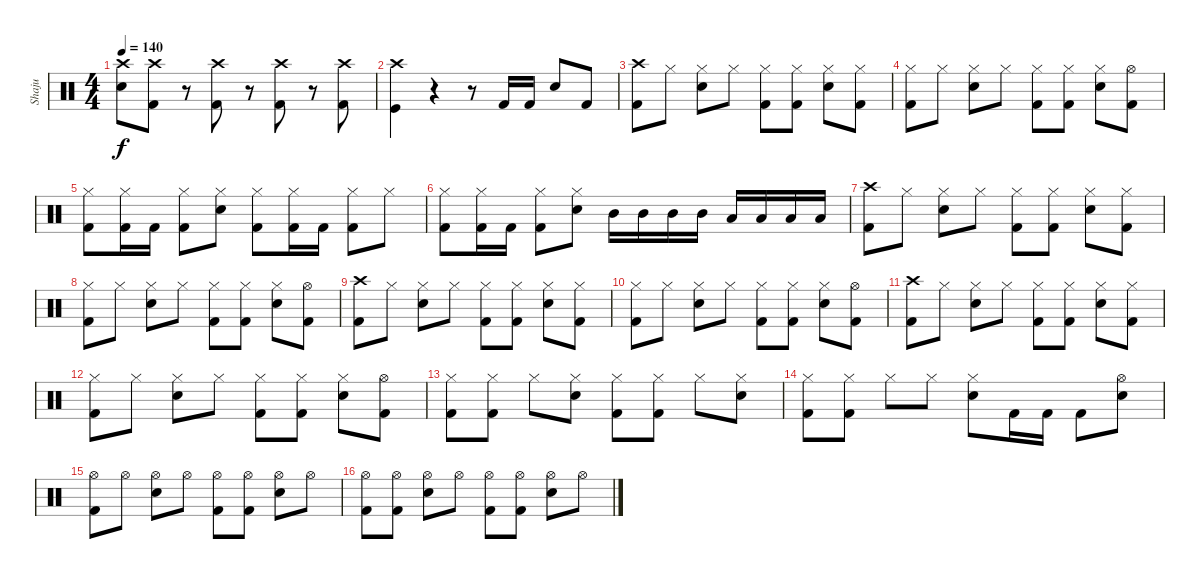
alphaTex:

\track ("Shaju" "Shaju") {instrument percussion}
\staff {score}
\articulation defaults
\ts (4 4)
\tempo 140
\clef neutral
\ks c
("Crash high (hit)" "Electric Snare (hit)").8{dy f} ("Crash high (hit)" "Kick (hit) 2").8 r.8 ("Kick (hit) 2" "Crash high (hit)").8 r.8 ("Kick (hit) 2" "Crash high (hit)").8 r.8 ("Crash high (hit)" "Kick (hit) 2").8 |
("Kick (hit)" "Crash high (hit)").4 r.4 r.8 "Kick (hit) 2".16 "Kick (hit) 2".16 "Electric Snare (hit)".8 "Kick (hit) 2".8 |
("Crash high (hit)" "Kick (hit) 2").8 "Hi-Hat (closed)".8 ("Hi-Hat (closed)" "Electric Snare (hit)").8 "Hi-Hat (closed)".8 ("Hi-Hat (closed)" "Kick (hit) 2").8 ("Hi-Hat (closed)" "Kick (hit) 2").8 ("Hi-Hat (closed)" "Electric Snare (hit)").8 ("Hi-Hat (closed)" "Kick (hit) 2").8 |
("Hi-Hat (closed)" "Kick (hit) 2").8 "Hi-Hat (closed)".8 ("Hi-Hat (closed)" "Electric Snare (hit)").8 "Hi-Hat (closed)".8 ("Hi-Hat (closed)" "Kick (hit) 2").8 ("Hi-Hat (closed)" "Kick (hit) 2").8 ("Hi-Hat (closed)" "Electric Snare (hit)").8 ("Hi-Hat (open)" "Kick (hit) 2").8 |
("Hi-Hat (closed)" "Kick (hit) 2").8 ("Hi-Hat (closed)" "Kick (hit) 2").16 "Kick (hit) 2".16 ("Hi-Hat (closed)" "Kick (hit) 2").8 ("Hi-Hat (closed)" "Electric Snare (hit)").8 ("Hi-Hat (closed)" "Kick (hit) 2").8 ("Hi-Hat (closed)" "Kick (hit) 2").16 "Kick (hit) 2".16 ("Hi-Hat (closed)" "Kick (hit) 2").8 "Hi-Hat (closed)".8 |
("Hi-Hat (closed)" "Kick (hit) 2").8 ("Hi-Hat (closed)" "Kick (hit) 2").16 "Kick (hit) 2".16 ("Hi-Hat (closed)" "Kick (hit) 2").8 ("Hi-Hat (closed)" "Electric Snare (hit)").8 "Mid Tom (hit)".16 "Mid Tom (hit)".16 "Mid Tom (hit)".16 "Mid Tom (hit)".16 "Low Tom (hit)".16 "Low Tom (hit)".16 "Low Tom (hit)".16 "Low Tom (hit)".16 |
("Crash high (hit)" "Kick (hit) 2").8 "Hi-Hat (closed)".8 ("Hi-Hat (closed)" "Electric Snare (hit)").8 "Hi-Hat (closed)".8 ("Hi-Hat (closed)" "Kick (hit) 2").8 ("Hi-Hat (closed)" "Kick (hit) 2").8 ("Hi-Hat (closed)" "Electric Snare (hit)").8 ("Hi-Hat (closed)" "Kick (hit) 2").8 |
("Hi-Hat (closed)" "Kick (hit) 2").8 "Hi-Hat (closed)".8 ("Hi-Hat (closed)" "Electric Snare (hit)").8 "Hi-Hat (closed)".8 ("Hi-Hat (closed)" "Kick (hit) 2").8 ("Hi-Hat (closed)" "Kick (hit) 2").8 ("Hi-Hat (closed)" "Electric Snare (hit)").8 ("Hi-Hat (open)" "Kick (hit) 2").8 |
("Crash high (hit)" "Kick (hit) 2").8 "Hi-Hat (closed)".8 ("Hi-Hat (closed)" "Electric Snare (hit)").8 "Hi-Hat (closed)".8 ("Hi-Hat (closed)" "Kick (hit) 2").8 ("Hi-Hat (closed)" "Kick (hit) 2").8 ("Hi-Hat (closed)" "Electric Snare (hit)").8 ("Hi-Hat (closed)" "Kick (hit) 2").8 |
("Hi-Hat (closed)" "Kick (hit) 2").8 "Hi-Hat (closed)".8 ("Hi-Hat (closed)" "Electric Snare (hit)").8 "Hi-Hat (closed)".8 ("Hi-Hat (closed)" "Kick (hit) 2").8 ("Hi-Hat (closed)" "Kick (hit) 2").8 ("Hi-Hat (closed)" "Electric Snare (hit)").8 ("Hi-Hat (open)" "Kick (hit) 2").8 |
("Crash high (hit)" "Kick (hit) 2").8 "Hi-Hat (closed)".8 ("Hi-Hat (closed)" "Electric Snare (hit)").8 "Hi-Hat (closed)".8 ("Hi-Hat (closed)" "Kick (hit) 2").8 ("Hi-Hat (closed)" "Kick (hit) 2").8 ("Hi-Hat (closed)" "Electric Snare (hit)").8 ("Hi-Hat (closed)" "Kick (hit) 2").8 |
("Hi-Hat (closed)" "Kick (hit) 2").8 "Hi-Hat (closed)".8 ("Hi-Hat (closed)" "Electric Snare (hit)").8 "Hi-Hat (closed)".8 ("Hi-Hat (closed)" "Kick (hit) 2").8 ("Hi-Hat (closed)" "Kick (hit) 2").8 ("Hi-Hat (closed)" "Electric Snare (hit)").8 ("Hi-Hat (open)" "Kick (hit) 2").8 |
("Hi-Hat (closed)" "Kick (hit) 2").8 ("Hi-Hat (closed)" "Kick (hit) 2").8 "Hi-Hat (closed)".8 ("Hi-Hat (closed)" "Electric Snare (hit)").8 ("Hi-Hat (closed)" "Kick (hit) 2").8 ("Hi-Hat (closed)" "Kick (hit) 2").8 "Hi-Hat (closed)".8 ("Hi-Hat (closed)" "Electric Snare (hit)").8 |
("Hi-Hat (closed)" "Kick (hit) 2").8 ("Hi-Hat (closed)" "Kick (hit) 2").8 "Hi-Hat (closed)".8 "Hi-Hat (closed)".8 ("Hi-Hat (closed)" "Electric Snare (hit)").8 "Kick (hit) 2".16 "Kick (hit) 2".16 "Kick (hit) 2".8 ("Hi-Hat (open)" "Electric Snare (hit)").8 |
("Hi-Hat (open)" "Kick (hit) 2").8 "Hi-Hat (open)".8 ("Hi-Hat (open)" "Electric Snare (hit)").8 "Hi-Hat (open)".8 ("Hi-Hat (open)" "Kick (hit) 2").8 ("Hi-Hat (open)" "Kick (hit) 2").8 ("Hi-Hat (open)" "Electric Snare (hit)").8 "Hi-Hat (open)".8 |
("Hi-Hat (open)" "Kick (hit) 2").8 ("Hi-Hat (open)" "Kick (hit) 2").8 ("Hi-Hat (open)" "Electric Snare (hit)").8 "Hi-Hat (open)".8 ("Hi-Hat (open)" "Kick (hit) 2").8 ("Hi-Hat (open)" "Kick (hit) 2").8 ("Hi-Hat (open)" "Electric Snare (hit)").8 "Hi-Hat (open)".8
